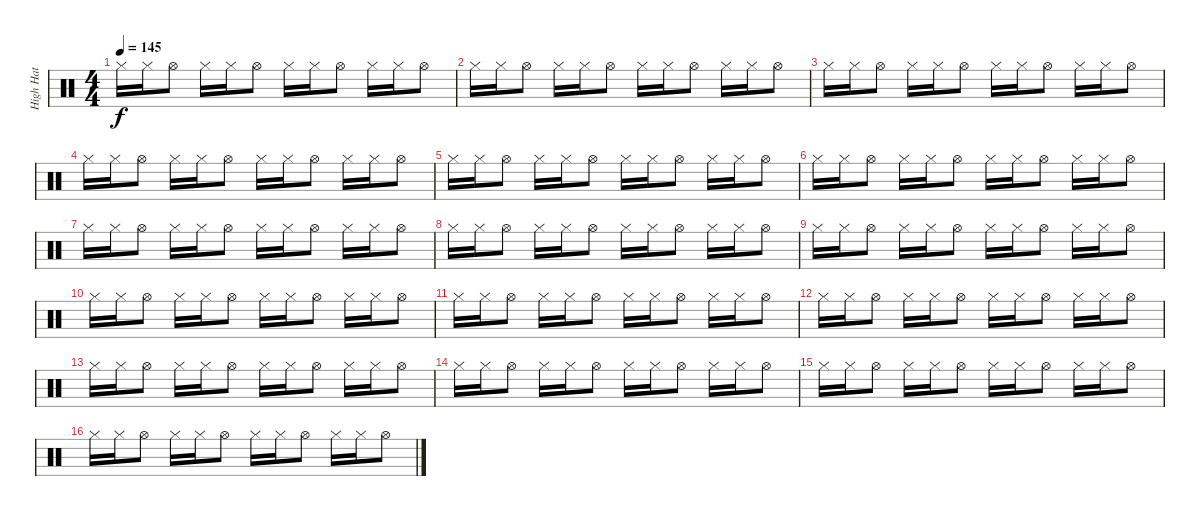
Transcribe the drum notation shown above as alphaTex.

\track ("High Hat" "High Hat") {instrument percussion}
\staff {score}
\articulation defaults
\ts (4 4)
\tempo 145
\clef neutral
\ks c "Hi-Hat (closed)".16{dy f} "Hi-Hat (closed)".16 "Hi-Hat (open)".8 "Hi-Hat (closed)".16 "Hi-Hat (closed)".16 "Hi-Hat (open)".8 "Hi-Hat (closed)".16 "Hi-Hat (closed)".16 "Hi-Hat (open)".8 "Hi-Hat (closed)".16 "Hi-Hat (closed)".16 "Hi-Hat (open)".8
|
"Hi-Hat (closed)".16 "Hi-Hat (closed)".16 "Hi-Hat (open)".8 "Hi-Hat (closed)".16 "Hi-Hat (closed)".16 "Hi-Hat (open)".8 "Hi-Hat (closed)".16 "Hi-Hat (closed)".16 "Hi-Hat (open)".8 "Hi-Hat (closed)".16 "Hi-Hat (closed)".16 "Hi-Hat (open)".8 |
"Hi-Hat (closed)".16 "Hi-Hat (closed)".16 "Hi-Hat (open)".8 "Hi-Hat (closed)".16 "Hi-Hat (closed)".16 "Hi-Hat (open)".8 "Hi-Hat (closed)".16 "Hi-Hat (closed)".16 "Hi-Hat (open)".8 "Hi-Hat (closed)".16 "Hi-Hat (closed)".16 "Hi-Hat (open)".8 |
"Hi-Hat (closed)".16 "Hi-Hat (closed)".16 "Hi-Hat (open)".8 "Hi-Hat (closed)".16 "Hi-Hat (closed)".16 "Hi-Hat (open)".8 "Hi-Hat (closed)".16 "Hi-Hat (closed)".16 "Hi-Hat (open)".8 "Hi-Hat (closed)".16 "Hi-Hat (closed)".16 "Hi-Hat (open)".8 |
"Hi-Hat (closed)".16 "Hi-Hat (closed)".16 "Hi-Hat (open)".8 "Hi-Hat (closed)".16 "Hi-Hat (closed)".16 "Hi-Hat (open)".8 "Hi-Hat (closed)".16 "Hi-Hat (closed)".16 "Hi-Hat (open)".8 "Hi-Hat (closed)".16 "Hi-Hat (closed)".16 "Hi-Hat (open)".8 |
"Hi-Hat (closed)".16 "Hi-Hat (closed)".16 "Hi-Hat (open)".8 "Hi-Hat (closed)".16 "Hi-Hat (closed)".16 "Hi-Hat (open)".8 "Hi-Hat (closed)".16 "Hi-Hat (closed)".16 "Hi-Hat (open)".8 "Hi-Hat (closed)".16 "Hi-Hat (closed)".16 "Hi-Hat (open)".8 |
"Hi-Hat (closed)".16 "Hi-Hat (closed)".16 "Hi-Hat (open)".8 "Hi-Hat (closed)".16 "Hi-Hat (closed)".16 "Hi-Hat (open)".8 "Hi-Hat (closed)".16 "Hi-Hat (closed)".16 "Hi-Hat (open)".8 "Hi-Hat (closed)".16 "Hi-Hat (closed)".16 "Hi-Hat (open)".8 |
"Hi-Hat (closed)".16 "Hi-Hat (closed)".16 "Hi-Hat (open)".8 "Hi-Hat (closed)".16 "Hi-Hat (closed)".16 "Hi-Hat (open)".8 "Hi-Hat (closed)".16 "Hi-Hat (closed)".16 "Hi-Hat (open)".8 "Hi-Hat (closed)".16 "Hi-Hat (closed)".16 "Hi-Hat (open)".8 |
"Hi-Hat (closed)".16 "Hi-Hat (closed)".16 "Hi-Hat (open)".8 "Hi-Hat (closed)".16 "Hi-Hat (closed)".16 "Hi-Hat (open)".8 "Hi-Hat (closed)".16 "Hi-Hat (closed)".16 "Hi-Hat (open)".8 "Hi-Hat (closed)".16 "Hi-Hat (closed)".16 "Hi-Hat (open)".8 |
"Hi-Hat (closed)".16 "Hi-Hat (closed)".16 "Hi-Hat (open)".8 "Hi-Hat (closed)".16 "Hi-Hat (closed)".16 "Hi-Hat (open)".8 "Hi-Hat (closed)".16 "Hi-Hat (closed)".16 "Hi-Hat (open)".8 "Hi-Hat (closed)".16 "Hi-Hat (closed)".16 "Hi-Hat (open)".8 |
"Hi-Hat (closed)".16 "Hi-Hat (closed)".16 "Hi-Hat (open)".8 "Hi-Hat (closed)".16 "Hi-Hat (closed)".16 "Hi-Hat (open)".8 "Hi-Hat (closed)".16 "Hi-Hat (closed)".16 "Hi-Hat (open)".8 "Hi-Hat (closed)".16 "Hi-Hat (closed)".16 "Hi-Hat (open)".8 |
"Hi-Hat (closed)".16 "Hi-Hat (closed)".16 "Hi-Hat (open)".8 "Hi-Hat (closed)".16 "Hi-Hat (closed)".16 "Hi-Hat (open)".8 "Hi-Hat (closed)".16 "Hi-Hat (closed)".16 "Hi-Hat (open)".8 "Hi-Hat (closed)".16 "Hi-Hat (closed)".16 "Hi-Hat (open)".8 |
"Hi-Hat (closed)".16 "Hi-Hat (closed)".16 "Hi-Hat (open)".8 "Hi-Hat (closed)".16 "Hi-Hat (closed)".16 "Hi-Hat (open)".8 "Hi-Hat (closed)".16 "Hi-Hat (closed)".16 "Hi-Hat (open)".8 "Hi-Hat (closed)".16 "Hi-Hat (closed)".16 "Hi-Hat (open)".8 |
"Hi-Hat (closed)".16 "Hi-Hat (closed)".16 "Hi-Hat (open)".8 "Hi-Hat (closed)".16 "Hi-Hat (closed)".16 "Hi-Hat (open)".8 "Hi-Hat (closed)".16 "Hi-Hat (closed)".16 "Hi-Hat (open)".8 "Hi-Hat (closed)".16 "Hi-Hat (closed)".16 "Hi-Hat (open)".8 |
"Hi-Hat (closed)".16 "Hi-Hat (closed)".16 "Hi-Hat (open)".8 "Hi-Hat (closed)".16 "Hi-Hat (closed)".16 "Hi-Hat (open)".8 "Hi-Hat (closed)".16 "Hi-Hat (closed)".16 "Hi-Hat (open)".8 "Hi-Hat (closed)".16 "Hi-Hat (closed)".16 "Hi-Hat (open)".8 |
"Hi-Hat (closed)".16 "Hi-Hat (closed)".16 "Hi-Hat (open)".8 "Hi-Hat (closed)".16 "Hi-Hat (closed)".16 "Hi-Hat (open)".8 "Hi-Hat (closed)".16 "Hi-Hat (closed)".16 "Hi-Hat (open)".8 "Hi-Hat (closed)".16 "Hi-Hat (closed)".16 "Hi-Hat (open)".8
